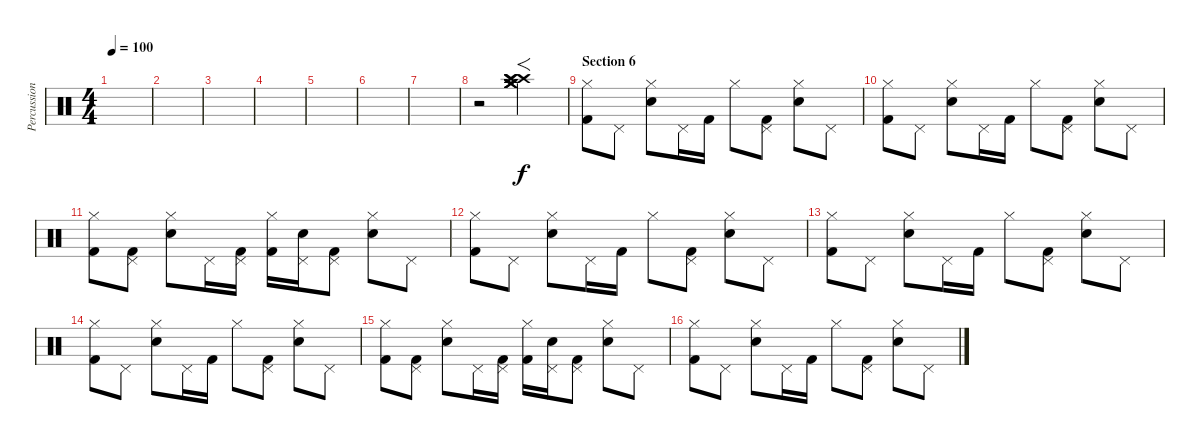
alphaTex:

\track ("Percussion" "Percussion") {instrument percussion}
\staff {score}
\articulation defaults
\ts (4 4)
\tempo 100
\clef neutral
\ks c
|
|
|
|
|
|
|
r.2 ("Crash medium (hit)" "Crash medium (hit)" "Crash medium (hit)" "Crash high (hit)" "Crash high (hit)" "Crash high (hit)").2{f} |
\section ("" "Section 6")
("Hi-Hat (closed)" "Kick (hit) 2").8 "Pedal Hi-Hat (hit)".8 ("Hi-Hat (closed)" "Electric Snare (hit)").8 "Pedal Hi-Hat (hit)".16 "Kick (hit) 2".16 "Hi-Hat (closed)".8 ("Pedal Hi-Hat (hit)" "Kick (hit) 2").8 ("Hi-Hat (closed)" "Electric Snare (hit)").8 "Pedal Hi-Hat (hit)".8 |
("Hi-Hat (closed)" "Kick (hit) 2").8 "Pedal Hi-Hat (hit)".8 ("Hi-Hat (closed)" "Electric Snare (hit)").8 "Pedal Hi-Hat (hit)".16 "Kick (hit) 2".16 "Hi-Hat (closed)".8 ("Pedal Hi-Hat (hit)" "Kick (hit) 2").8 ("Hi-Hat (closed)" "Electric Snare (hit)").8 "Pedal Hi-Hat (hit)".8 |
("Hi-Hat (closed)" "Kick (hit) 2").8 ("Pedal Hi-Hat (hit)" "Kick (hit) 2").8 ("Hi-Hat (closed)" "Electric Snare (hit)").8 "Pedal Hi-Hat (hit)".16 ("Pedal Hi-Hat (hit)" "Kick (hit) 2").16 ("Hi-Hat (closed)" "Kick (hit) 2").16 ("Pedal Hi-Hat (hit)" "Electric Snare (hit)").16 ("Pedal Hi-Hat (hit)" "Kick (hit) 2").8 ("Hi-Hat (closed)" "Electric Snare (hit)").8 "Pedal Hi-Hat (hit)".8 |
("Hi-Hat (closed)" "Kick (hit) 2").8 "Pedal Hi-Hat (hit)".8 ("Hi-Hat (closed)" "Electric Snare (hit)").8 "Pedal Hi-Hat (hit)".16 "Kick (hit) 2".16 "Hi-Hat (closed)".8 ("Pedal Hi-Hat (hit)" "Kick (hit) 2").8 ("Hi-Hat (closed)" "Electric Snare (hit)").8 "Pedal Hi-Hat (hit)".8 |
("Hi-Hat (closed)" "Kick (hit) 2").8 "Pedal Hi-Hat (hit)".8 ("Hi-Hat (closed)" "Electric Snare (hit)").8 "Pedal Hi-Hat (hit)".16 "Kick (hit) 2".16 "Hi-Hat (closed)".8 ("Pedal Hi-Hat (hit)" "Kick (hit) 2").8 ("Hi-Hat (closed)" "Electric Snare (hit)").8 "Pedal Hi-Hat (hit)".8 |
("Hi-Hat (closed)" "Kick (hit) 2").8 "Pedal Hi-Hat (hit)".8 ("Hi-Hat (closed)" "Electric Snare (hit)").8 "Pedal Hi-Hat (hit)".16 "Kick (hit) 2".16 "Hi-Hat (closed)".8 ("Pedal Hi-Hat (hit)" "Kick (hit) 2").8 ("Hi-Hat (closed)" "Electric Snare (hit)").8 "Pedal Hi-Hat (hit)".8 |
("Hi-Hat (closed)" "Kick (hit) 2").8 ("Pedal Hi-Hat (hit)" "Kick (hit) 2").8 ("Hi-Hat (closed)" "Electric Snare (hit)").8 "Pedal Hi-Hat (hit)".16 ("Pedal Hi-Hat (hit)" "Kick (hit) 2").16 ("Hi-Hat (closed)" "Kick (hit) 2").16 ("Pedal Hi-Hat (hit)" "Electric Snare (hit)").16 ("Pedal Hi-Hat (hit)" "Kick (hit) 2").8 ("Hi-Hat (closed)" "Electric Snare (hit)").8 "Pedal Hi-Hat (hit)".8 |
("Hi-Hat (closed)" "Kick (hit) 2").8 "Pedal Hi-Hat (hit)".8 ("Hi-Hat (closed)" "Electric Snare (hit)").8 "Pedal Hi-Hat (hit)".16 "Kick (hit) 2".16 "Hi-Hat (closed)".8 ("Pedal Hi-Hat (hit)" "Kick (hit) 2").8 ("Hi-Hat (closed)" "Electric Snare (hit)").8 "Pedal Hi-Hat (hit)".8
